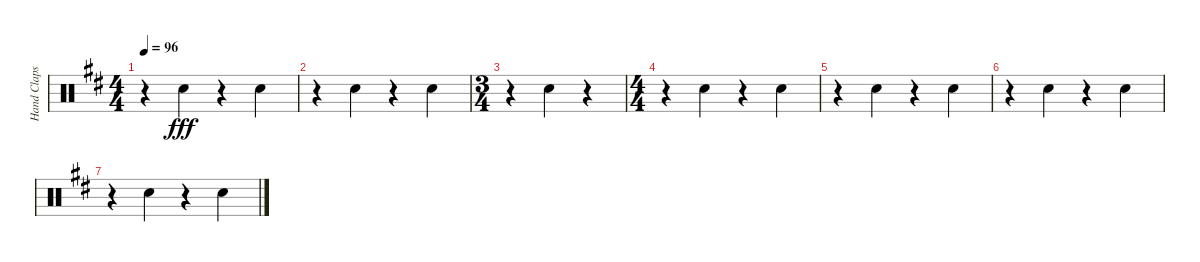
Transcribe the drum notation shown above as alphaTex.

\track ("Hand Claps" "Hand Claps") {instrument percussion}
\staff {score}
\articulation defaults
\ts (4 4)
\tempo 96
\clef neutral
\ks d
r.4{dy fff} "Hand Clap (hit)".4 r.4 "Hand Clap (hit)".4 |
r.4 "Hand Clap (hit)".4 r.4 "Hand Clap (hit)".4 |
\ts (3 4)
r.4 "Hand Clap (hit)".4 r.4 |
\ts (4 4)
r.4 "Hand Clap (hit)".4 r.4 "Hand Clap (hit)".4 |
r.4 "Hand Clap (hit)".4 r.4 "Hand Clap (hit)".4 |
r.4 "Hand Clap (hit)".4 r.4 "Hand Clap (hit)".4 |
r.4 "Hand Clap (hit)".4 r.4 "Hand Clap (hit)".4
